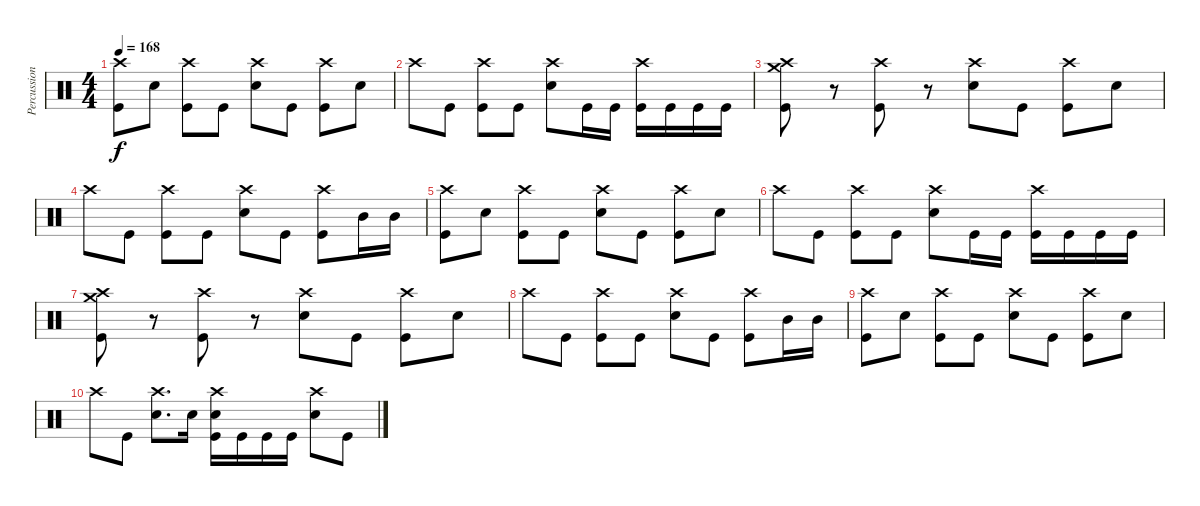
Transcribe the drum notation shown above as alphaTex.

\track ("Percussion" "Percussion") {instrument percussion}
\staff {score}
\articulation defaults
\ts (4 4)
\tempo 168
\clef neutral
\ks c
("Crash high (hit)" "Kick (hit)").8{dy f} "Snare (hit) 2".8 ("Crash high (hit)" "Kick (hit)").8 "Kick (hit)".8 ("Crash high (hit)" "Snare (hit) 2").8 "Kick (hit)".8 ("Crash high (hit)" "Kick (hit)").8 "Snare (hit) 2".8 |
"Crash high (hit)".8 "Kick (hit)".8 ("Crash high (hit)" "Kick (hit)").8 "Kick (hit)".8 ("Crash high (hit)" "Snare (hit) 2").8 "Kick (hit)".16 "Kick (hit)".16 ("Crash high (hit)" "Kick (hit)").16 "Kick (hit)".16 "Kick (hit)".16 "Kick (hit)".16 |
("Crash high (hit)" "Crash medium (hit)" "Kick (hit)").8{volume 2} r.8 ("Crash high (hit)" "Kick (hit)").8 r.8 ("Crash high (hit)" "Snare (hit) 2").8 "Kick (hit)".8 ("Crash high (hit)" "Kick (hit)").8 "Snare (hit) 2".8 |
"Crash high (hit)".8 "Kick (hit)".8 ("Crash high (hit)" "Kick (hit)").8 "Kick (hit)".8 ("Crash high (hit)" "Snare (hit) 2").8 "Kick (hit)".8 ("Crash high (hit)" "Kick (hit)").8 "Mid Tom (hit)".16 "Mid Tom (hit)".16 |
("Crash high (hit)" "Kick (hit)").8 "Snare (hit) 2".8 ("Crash high (hit)" "Kick (hit)").8 "Kick (hit)".8 ("Crash high (hit)" "Snare (hit) 2").8 "Kick (hit)".8 ("Crash high (hit)" "Kick (hit)").8 "Snare (hit) 2".8 |
"Crash high (hit)".8 "Kick (hit)".8 ("Crash high (hit)" "Kick (hit)").8 "Kick (hit)".8 ("Crash high (hit)" "Snare (hit) 2").8 "Kick (hit)".16 "Kick (hit)".16 ("Crash high (hit)" "Kick (hit)").16 "Kick (hit)".16 "Kick (hit)".16 "Kick (hit)".16 |
("Crash high (hit)" "Crash medium (hit)" "Kick (hit)").8{volume 0} r.8 ("Crash high (hit)" "Kick (hit)").8 r.8 ("Crash high (hit)" "Snare (hit) 2").8 "Kick (hit)".8 ("Crash high (hit)" "Kick (hit)").8 "Snare (hit) 2".8 |
"Crash high (hit)".8 "Kick (hit)".8 ("Crash high (hit)" "Kick (hit)").8 "Kick (hit)".8 ("Crash high (hit)" "Snare (hit) 2").8 "Kick (hit)".8 ("Crash high (hit)" "Kick (hit)").8 "Mid Tom (hit)".16 "Mid Tom (hit)".16 |
("Crash high (hit)" "Kick (hit)").8 "Snare (hit) 2".8 ("Crash high (hit)" "Kick (hit)").8 "Kick (hit)".8 ("Crash high (hit)" "Snare (hit) 2").8 "Kick (hit)".8 ("Crash high (hit)" "Kick (hit)").8 "Snare (hit) 2".8 |
"Crash high (hit)".8 "Kick (hit)".8 ("Crash high (hit)" "Snare (hit) 2").8{d} "Snare (hit) 2".16 ("Crash high (hit)" "Snare (hit) 2" "Kick (hit)").16 "Kick (hit)".16 "Kick (hit)".16 "Kick (hit)".16 ("Crash high (hit)" "Snare (hit) 2").8 "Kick (hit)".8
